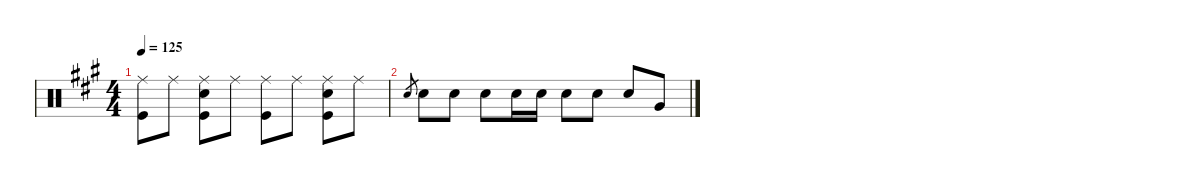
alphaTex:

\defaultSystemsLayout 4
\hideDynamics
\bracketExtendMode nobrackets
\singleTrackTrackNamePolicy hidden
\multiTrackTrackNamePolicy hidden
\otherSystemsTrackNameOrientation horizontal
\track ("Drums" "drm.") {instrument percussion}
\staff {score}
\articulation defaults
\ts (4 4)
\tempo 125
\clef neutral
\ks a
("Ride (middle)"{acc forcenatural} "Kick (hit)"{acc forcenatural}).8{dy f beam Down} "Ride (middle)"{acc forcenatural}.8{beam Down} ("Ride (middle)"{acc forcenatural} "Snare (hit) 2"{acc forcenatural} "Kick (hit)"{acc forcenatural}).8{beam Down} "Ride (middle)"{acc forcenatural}.8{beam Down} ("Ride (middle)"{acc forcenatural} "Kick (hit)"{acc forcenatural}).8{beam Down} "Ride (middle)"{acc forcenatural}.8{beam Down} ("Ride (middle)"{acc forcenatural} "Snare (hit) 2"{acc forcenatural} "Kick (hit)"{acc forcenatural}).8{beam Down} "Ride (middle)"{acc forcenatural}.8{beam Down} |
"Snare (hit) 2"{acc forcenatural}.8{gr dy mf beam Up} "Snare (hit) 2"{acc forcenatural}.8{dy f beam Down} "Snare (hit) 2"{acc forcenatural}.8{beam Down} "Snare (hit) 2"{acc forcenatural}.8{beam Down} "Snare (hit) 2"{acc forcenatural}.16{beam Down} "Snare (hit) 2"{acc forcenatural}.16{beam Down} "Snare (hit) 2"{acc forcenatural}.8{beam Down} "Snare (hit) 2"{acc forcenatural}.8{beam Down} "Snare (hit) 2"{acc forcenatural}.8{beam Up} "Very Low Tom (hit)"{acc forcenatural}.8{beam Up}
